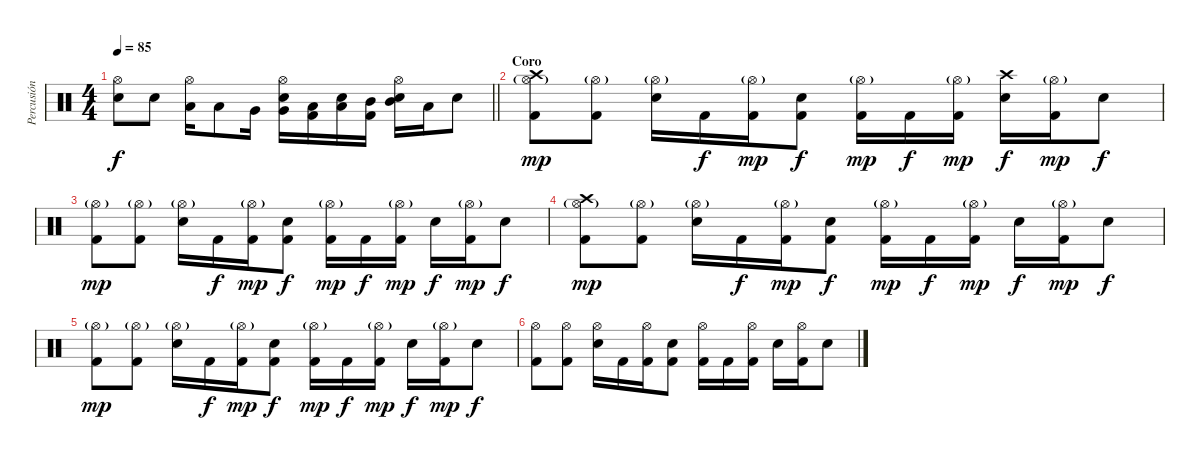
\track ("Percusión" "Percusión") {instrument percussion}
\staff {score}
\articulation defaults
\ts (4 4)
\tempo 85
\clef neutral
\barLineRight lightlight
\ks c
("Hi-Hat (open)" "Electric Snare (hit)").8{dy f} "Electric Snare (hit)".8 ("Hi-Hat (open)" "Low Floor Tom (hit)").16 "Low Floor Tom (hit)".8 "Very Low Tom (hit)".16 ("Hi-Hat (open)" "Electric Snare (hit)" "Very Low Tom (hit)").16 ("Kick (hit) 2" "Low Tom (hit)").16 ("Electric Snare (hit)" "Low Tom (hit)").16 ("Kick (hit) 2" "Mid Tom (hit)").16 ("Hi-Hat (open)" "Electric Snare (hit)" "Mid Tom (hit)").16 "Low Tom (hit)".16 "Electric Snare (hit)".8 |
\section ("" "Coro")
("Hi-Hat (open)"{g} "Kick (hit) 2" "Crash high (hit)").8{dy mp} ("Hi-Hat (open)"{g} "Kick (hit) 2").8 ("Hi-Hat (open)"{g} "Electric Snare (hit)").16 "Kick (hit) 2".16{dy f} ("Hi-Hat (open)"{g} "Kick (hit) 2").16{dy mp} ("Kick (hit) 2" "Electric Snare (hit)").8{dy f} ("Hi-Hat (open)"{g} "Kick (hit) 2").16{dy mp} "Kick (hit) 2".16{dy f} ("Hi-Hat (open)"{g} "Kick (hit) 2").16{dy mp} ("Electric Snare (hit)" "Crash high (hit)").16{dy f} ("Hi-Hat (open)"{g} "Kick (hit) 2").16{dy mp} "Electric Snare (hit)".8{dy f} |
("Hi-Hat (open)"{g} "Kick (hit) 2").8{dy mp} ("Hi-Hat (open)"{g} "Kick (hit) 2").8 ("Hi-Hat (open)"{g} "Electric Snare (hit)").16 "Kick (hit) 2".16{dy f} ("Hi-Hat (open)"{g} "Kick (hit) 2").16{dy mp} ("Kick (hit) 2" "Electric Snare (hit)").8{dy f} ("Hi-Hat (open)"{g} "Kick (hit) 2").16{dy mp} "Kick (hit) 2".16{dy f} ("Hi-Hat (open)"{g} "Kick (hit) 2").16{dy mp} "Electric Snare (hit)".16{dy f} ("Hi-Hat (open)"{g} "Kick (hit) 2").16{dy mp} "Electric Snare (hit)".8{dy f} |
("Hi-Hat (open)"{g} "Kick (hit) 2" "Crash high (hit)").8{dy mp} ("Hi-Hat (open)"{g} "Kick (hit) 2").8 ("Hi-Hat (open)"{g} "Electric Snare (hit)").16 "Kick (hit) 2".16{dy f} ("Hi-Hat (open)"{g} "Kick (hit) 2").16{dy mp} ("Kick (hit) 2" "Electric Snare (hit)").8{dy f} ("Hi-Hat (open)"{g} "Kick (hit) 2").16{dy mp} "Kick (hit) 2".16{dy f} ("Hi-Hat (open)"{g} "Kick (hit) 2").16{dy mp} "Electric Snare (hit)".16{dy f} ("Hi-Hat (open)"{g} "Kick (hit) 2").16{dy mp} "Electric Snare (hit)".8{dy f} |
("Hi-Hat (open)"{g} "Kick (hit) 2").8{dy mp} ("Hi-Hat (open)"{g} "Kick (hit) 2").8 ("Hi-Hat (open)"{g} "Electric Snare (hit)").16 "Kick (hit) 2".16{dy f} ("Hi-Hat (open)"{g} "Kick (hit) 2").16{dy mp} ("Kick (hit) 2" "Electric Snare (hit)").8{dy f} ("Hi-Hat (open)"{g} "Kick (hit) 2").16{dy mp} "Kick (hit) 2".16{dy f} ("Hi-Hat (open)"{g} "Kick (hit) 2").16{dy mp} "Electric Snare (hit)".16{dy f} ("Hi-Hat (open)"{g} "Kick (hit) 2").16{dy mp} "Electric Snare (hit)".8{dy f} |
("Hi-Hat (open)" "Kick (hit) 2").8 ("Hi-Hat (open)" "Kick (hit) 2").8 ("Hi-Hat (open)" "Electric Snare (hit)").16 "Kick (hit) 2".16 ("Hi-Hat (open)" "Kick (hit) 2").16 ("Kick (hit) 2" "Electric Snare (hit)").8 ("Hi-Hat (open)" "Kick (hit) 2").16 "Kick (hit) 2".16 ("Hi-Hat (open)" "Kick (hit) 2").16 "Electric Snare (hit)".16 ("Hi-Hat (open)" "Kick (hit) 2").16 "Electric Snare (hit)".8
